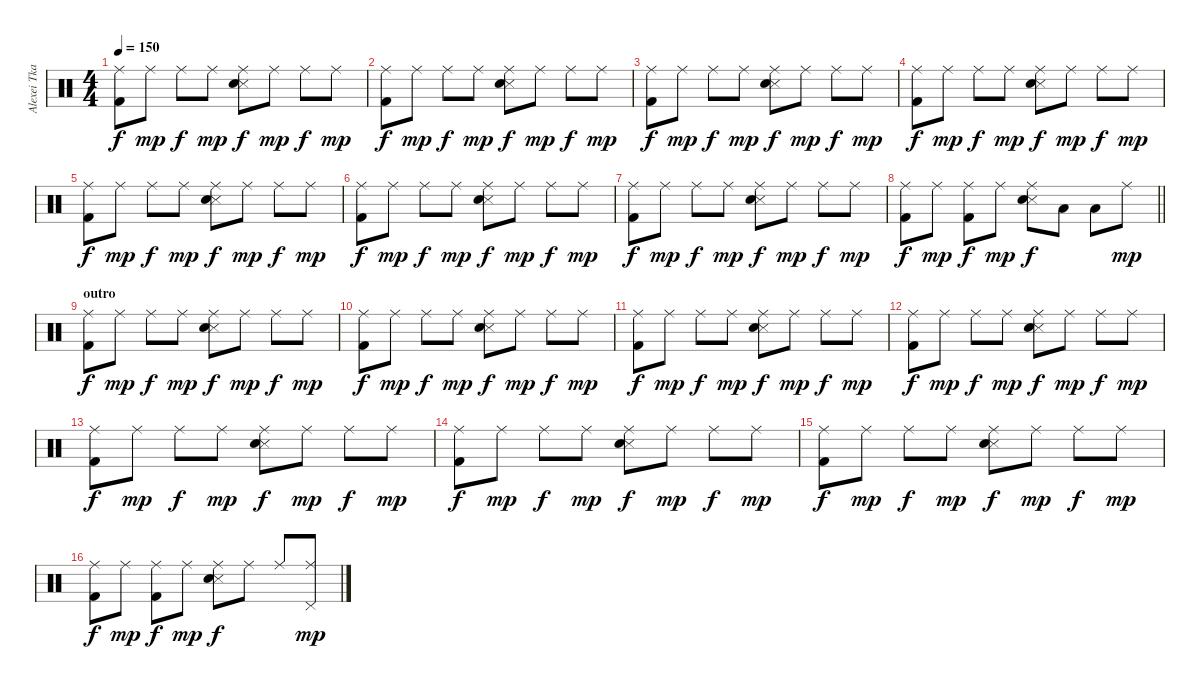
\track ("Alexei Tkachevskiy " "Alexei Tka") {instrument percussion}
\staff {score}
\articulation defaults
\ts (4 4)
\tempo 150
\clef neutral
\ks c
("Ride (middle)" "Kick (hit) 2").8{dy f} "Ride (middle)".8{dy mp} "Ride (middle)".8{dy f} "Ride (middle)".8{dy mp} ("Ride (middle)" "Snare (side stick) 3" "Snare (hit) 2").8{dy f} "Ride (middle)".8{dy mp} "Ride (middle)".8{dy f} "Ride (middle)".8{dy mp} |
("Ride (middle)" "Kick (hit) 2").8{dy f} "Ride (middle)".8{dy mp} "Ride (middle)".8{dy f} "Ride (middle)".8{dy mp} ("Ride (middle)" "Snare (side stick) 3" "Snare (hit) 2").8{dy f} "Ride (middle)".8{dy mp} "Ride (middle)".8{dy f} "Ride (middle)".8{dy mp} |
("Ride (middle)" "Kick (hit) 2").8{dy f} "Ride (middle)".8{dy mp} "Ride (middle)".8{dy f} "Ride (middle)".8{dy mp} ("Ride (middle)" "Snare (side stick) 3" "Snare (hit) 2").8{dy f} "Ride (middle)".8{dy mp} "Ride (middle)".8{dy f} "Ride (middle)".8{dy mp} |
("Ride (middle)" "Kick (hit) 2").8{dy f} "Ride (middle)".8{dy mp} "Ride (middle)".8{dy f} "Ride (middle)".8{dy mp} ("Ride (middle)" "Snare (side stick) 3" "Snare (hit) 2").8{dy f} "Ride (middle)".8{dy mp} "Ride (middle)".8{dy f} "Ride (middle)".8{dy mp} |
("Ride (middle)" "Kick (hit) 2").8{dy f} "Ride (middle)".8{dy mp} "Ride (middle)".8{dy f} "Ride (middle)".8{dy mp} ("Ride (middle)" "Snare (side stick) 3" "Snare (hit) 2").8{dy f} "Ride (middle)".8{dy mp} "Ride (middle)".8{dy f} "Ride (middle)".8{dy mp} |
("Ride (middle)" "Kick (hit) 2").8{dy f} "Ride (middle)".8{dy mp} "Ride (middle)".8{dy f} "Ride (middle)".8{dy mp} ("Ride (middle)" "Snare (side stick) 3" "Snare (hit) 2").8{dy f} "Ride (middle)".8{dy mp} "Ride (middle)".8{dy f} "Ride (middle)".8{dy mp} |
("Ride (middle)" "Kick (hit) 2").8{dy f} "Ride (middle)".8{dy mp} "Ride (middle)".8{dy f} "Ride (middle)".8{dy mp} ("Ride (middle)" "Snare (side stick) 3" "Snare (hit) 2").8{dy f} "Ride (middle)".8{dy mp} "Ride (middle)".8{dy f} "Ride (middle)".8{dy mp} |
\barLineRight lightlight
("Ride (middle)" "Kick (hit) 2").8{dy f} "Ride (middle)".8{dy mp} ("Ride (middle)" "Kick (hit) 2").8{dy f} "Ride (middle)".8{dy mp} ("Ride (middle)" "Snare (side stick) 3" "Snare (hit) 2").8{dy f} "Low Tom (hit)".8 "Low Tom (hit)".8 "Ride (middle)".8{dy mp} |
\section ("" "outro")
("Ride (middle)" "Kick (hit) 2").8{dy f} "Ride (middle)".8{dy mp} "Ride (middle)".8{dy f} "Ride (middle)".8{dy mp} ("Ride (middle)" "Snare (side stick) 3" "Snare (hit) 2").8{dy f} "Ride (middle)".8{dy mp} "Ride (middle)".8{dy f} "Ride (middle)".8{dy mp} |
("Ride (middle)" "Kick (hit) 2").8{dy f} "Ride (middle)".8{dy mp} "Ride (middle)".8{dy f} "Ride (middle)".8{dy mp} ("Ride (middle)" "Snare (side stick) 3" "Snare (hit) 2").8{dy f} "Ride (middle)".8{dy mp} "Ride (middle)".8{dy f} "Ride (middle)".8{dy mp} |
("Ride (middle)" "Kick (hit) 2").8{dy f} "Ride (middle)".8{dy mp} "Ride (middle)".8{dy f} "Ride (middle)".8{dy mp} ("Ride (middle)" "Snare (side stick) 3" "Snare (hit) 2").8{dy f} "Ride (middle)".8{dy mp} "Ride (middle)".8{dy f} "Ride (middle)".8{dy mp} |
("Ride (middle)" "Kick (hit) 2").8{dy f} "Ride (middle)".8{dy mp} "Ride (middle)".8{dy f} "Ride (middle)".8{dy mp} ("Ride (middle)" "Snare (side stick) 3" "Snare (hit) 2").8{dy f} "Ride (middle)".8{dy mp} "Ride (middle)".8{dy f} "Ride (middle)".8{dy mp} |
("Ride (middle)" "Kick (hit) 2").8{dy f} "Ride (middle)".8{dy mp} "Ride (middle)".8{dy f} "Ride (middle)".8{dy mp} ("Ride (middle)" "Snare (side stick) 3" "Snare (hit) 2").8{dy f} "Ride (middle)".8{dy mp} "Ride (middle)".8{dy f} "Ride (middle)".8{dy mp} |
("Ride (middle)" "Kick (hit) 2").8{dy f} "Ride (middle)".8{dy mp} "Ride (middle)".8{dy f} "Ride (middle)".8{dy mp} ("Ride (middle)" "Snare (side stick) 3" "Snare (hit) 2").8{dy f} "Ride (middle)".8{dy mp} "Ride (middle)".8{dy f} "Ride (middle)".8{dy mp} |
("Ride (middle)" "Kick (hit) 2").8{dy f} "Ride (middle)".8{dy mp} "Ride (middle)".8{dy f} "Ride (middle)".8{dy mp} ("Ride (middle)" "Snare (side stick) 3" "Snare (hit) 2").8{dy f} "Ride (middle)".8{dy mp} "Ride (middle)".8{dy f} "Ride (middle)".8{dy mp} |
("Ride (middle)" "Kick (hit) 2").8{dy f} "Ride (middle)".8{dy mp} ("Ride (middle)" "Kick (hit) 2").8{dy f} "Ride (middle)".8{dy mp} ("Ride (middle)" "Snare (side stick) 3" "Snare (hit) 2").8{dy f} "Ride (middle)".8 "Ride (middle)".8 ("Ride (middle)" "Pedal Hi-Hat (hit)").8{dy mp}
